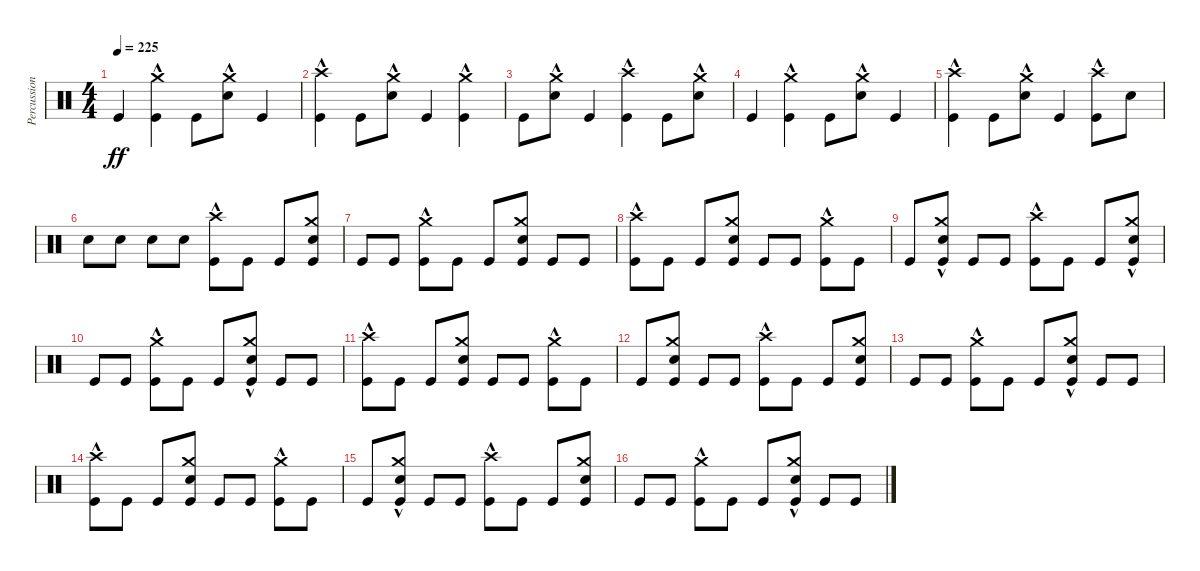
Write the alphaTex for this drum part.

\track ("Percussions" "Percussion") {instrument percussion}
\staff {score}
\articulation defaults
\ts (4 4)
\tempo 225
\clef neutral
\ks c "Kick (hit)".4{dy ff}
("Kick (hit)" "Crash medium (hit)"{hac}).4 "Kick (hit)".8 ("Electric Snare (hit)"{hac} "Crash medium (hit)"{hac}).8 "Kick (hit)".4 |
("Kick (hit)" "Crash high (hit)"{hac}).4 "Kick (hit)".8 ("Electric Snare (hit)"{hac} "Crash medium (hit)"{hac}).8 "Kick (hit)".4 ("Kick (hit)" "Crash medium (hit)"{hac}).4 |
"Kick (hit)".8 ("Electric Snare (hit)"{hac} "Crash medium (hit)"{hac}).8 "Kick (hit)".4 ("Kick (hit)" "Crash high (hit)"{hac}).4 "Kick (hit)".8 ("Electric Snare (hit)"{hac} "Crash medium (hit)"{hac}).8 |
"Kick (hit)".4 ("Kick (hit)" "Crash medium (hit)"{hac}).4 "Kick (hit)".8 ("Electric Snare (hit)"{hac} "Crash medium (hit)"{hac}).8 "Kick (hit)".4 |
("Kick (hit)" "Crash high (hit)"{hac}).4 "Kick (hit)".8 ("Electric Snare (hit)" "Crash medium (hit)"{hac}).8 "Kick (hit)".4 ("Kick (hit)"{hac} "Crash high (hit)"{hac}).8 "Electric Snare (hit)".8 |
"Electric Snare (hit)".8 "Electric Snare (hit)".8 "Electric Snare (hit)".8 "Electric Snare (hit)".8 ("Kick (hit)" "Crash high (hit)"{hac}).8 "Kick (hit)".8 "Kick (hit)".8 ("Kick (hit)" "Electric Snare (hit)" "Crash medium (hit)").8 |
"Kick (hit)".8 "Kick (hit)".8 ("Kick (hit)" "Crash medium (hit)"{hac}).8 "Kick (hit)".8 "Kick (hit)".8 ("Kick (hit)" "Electric Snare (hit)" "Crash medium (hit)").8 "Kick (hit)".8 "Kick (hit)".8 |
("Kick (hit)" "Crash high (hit)"{hac}).8 "Kick (hit)".8 "Kick (hit)".8 ("Kick (hit)" "Electric Snare (hit)" "Crash medium (hit)").8 "Kick (hit)".8 "Kick (hit)".8 ("Kick (hit)" "Crash medium (hit)"{hac}).8 "Kick (hit)".8 |
"Kick (hit)".8 ("Kick (hit)" "Electric Snare (hit)" "Crash medium (hit)"{hac}).8 "Kick (hit)".8 "Kick (hit)".8 ("Kick (hit)" "Crash high (hit)"{hac}).8 "Kick (hit)".8 "Kick (hit)".8 ("Kick (hit)" "Electric Snare (hit)" "Crash medium (hit)"{hac}).8 |
"Kick (hit)".8 "Kick (hit)".8 ("Kick (hit)" "Crash medium (hit)"{hac}).8 "Kick (hit)".8 "Kick (hit)".8 ("Kick (hit)" "Electric Snare (hit)" "Crash medium (hit)"{hac}).8 "Kick (hit)".8 "Kick (hit)".8 |
("Kick (hit)" "Crash high (hit)"{hac}).8 "Kick (hit)".8 "Kick (hit)".8 ("Kick (hit)" "Electric Snare (hit)" "Crash medium (hit)").8 "Kick (hit)".8 "Kick (hit)".8 ("Kick (hit)" "Crash medium (hit)"{hac}).8 "Kick (hit)".8 |
"Kick (hit)".8 ("Kick (hit)" "Electric Snare (hit)" "Crash medium (hit)").8 "Kick (hit)".8 "Kick (hit)".8 ("Kick (hit)" "Crash high (hit)"{hac}).8 "Kick (hit)".8 "Kick (hit)".8 ("Kick (hit)" "Electric Snare (hit)" "Crash medium (hit)").8 |
"Kick (hit)".8 "Kick (hit)".8 ("Kick (hit)" "Crash medium (hit)"{hac}).8 "Kick (hit)".8 "Kick (hit)".8 ("Kick (hit)" "Electric Snare (hit)" "Crash medium (hit)"{hac}).8 "Kick (hit)".8 "Kick (hit)".8 |
("Kick (hit)" "Crash high (hit)"{hac}).8 "Kick (hit)".8 "Kick (hit)".8 ("Kick (hit)" "Electric Snare (hit)" "Crash medium (hit)").8 "Kick (hit)".8 "Kick (hit)".8 ("Kick (hit)" "Crash medium (hit)"{hac}).8 "Kick (hit)".8 |
"Kick (hit)".8 ("Kick (hit)" "Electric Snare (hit)" "Crash medium (hit)"{hac}).8 "Kick (hit)".8 "Kick (hit)".8 ("Kick (hit)" "Crash high (hit)"{hac}).8 "Kick (hit)".8 "Kick (hit)".8 ("Kick (hit)" "Electric Snare (hit)" "Crash medium (hit)").8 |
"Kick (hit)".8 "Kick (hit)".8 ("Kick (hit)" "Crash medium (hit)"{hac}).8 "Kick (hit)".8 "Kick (hit)".8 ("Kick (hit)" "Electric Snare (hit)" "Crash medium (hit)"{hac}).8 "Kick (hit)".8 "Kick (hit)".8
